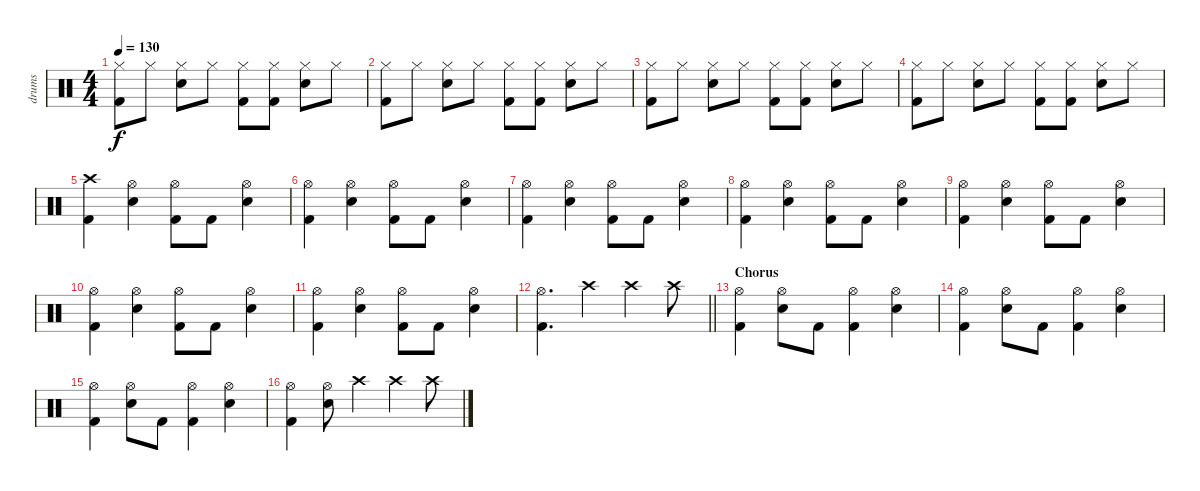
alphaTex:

\track ("drums" "drums") {instrument percussion}
\staff {score}
\articulation defaults
\ts (4 4)
\tempo 130
\clef neutral
\ks c
("Hi-Hat (closed)" "Kick (hit) 2").8{dy f} "Hi-Hat (closed)".8 ("Hi-Hat (closed)" "Snare (hit) 2").8 "Hi-Hat (closed)".8 ("Hi-Hat (closed)" "Kick (hit) 2").8 ("Hi-Hat (closed)" "Kick (hit) 2").8 ("Hi-Hat (closed)" "Snare (hit) 2").8 "Hi-Hat (closed)".8 |
("Hi-Hat (closed)" "Kick (hit) 2").8 "Hi-Hat (closed)".8 ("Hi-Hat (closed)" "Snare (hit) 2").8 "Hi-Hat (closed)".8 ("Hi-Hat (closed)" "Kick (hit) 2").8 ("Hi-Hat (closed)" "Kick (hit) 2").8 ("Hi-Hat (closed)" "Snare (hit) 2").8 "Hi-Hat (closed)".8 |
("Hi-Hat (closed)" "Kick (hit) 2").8 "Hi-Hat (closed)".8 ("Hi-Hat (closed)" "Snare (hit) 2").8 "Hi-Hat (closed)".8 ("Hi-Hat (closed)" "Kick (hit) 2").8 ("Hi-Hat (closed)" "Kick (hit) 2").8 ("Hi-Hat (closed)" "Snare (hit) 2").8 "Hi-Hat (closed)".8 |
("Hi-Hat (closed)" "Kick (hit) 2").8 "Hi-Hat (closed)".8 ("Hi-Hat (closed)" "Snare (hit) 2").8 "Hi-Hat (closed)".8 ("Hi-Hat (closed)" "Kick (hit) 2").8 ("Hi-Hat (closed)" "Kick (hit) 2").8 ("Hi-Hat (closed)" "Snare (hit) 2").8 "Hi-Hat (closed)".8 |
("Crash high (hit)" "Kick (hit) 2").4 ("Hi-Hat (open)" "Snare (hit) 2").4 ("Hi-Hat (open)" "Kick (hit) 2").8 "Kick (hit) 2".8 ("Hi-Hat (open)" "Snare (hit) 2").4 |
("Hi-Hat (open)" "Kick (hit) 2").4 ("Hi-Hat (open)" "Snare (hit) 2").4 ("Hi-Hat (open)" "Kick (hit) 2").8 "Kick (hit) 2".8 ("Hi-Hat (open)" "Snare (hit) 2").4 |
("Hi-Hat (open)" "Kick (hit) 2").4 ("Hi-Hat (open)" "Snare (hit) 2").4 ("Hi-Hat (open)" "Kick (hit) 2").8 "Kick (hit) 2".8 ("Hi-Hat (open)" "Snare (hit) 2").4 |
("Hi-Hat (open)" "Kick (hit) 2").4 ("Hi-Hat (open)" "Snare (hit) 2").4 ("Hi-Hat (open)" "Kick (hit) 2").8 "Kick (hit) 2".8 ("Hi-Hat (open)" "Snare (hit) 2").4 |
("Hi-Hat (open)" "Kick (hit) 2").4 ("Hi-Hat (open)" "Snare (hit) 2").4 ("Hi-Hat (open)" "Kick (hit) 2").8 "Kick (hit) 2".8 ("Hi-Hat (open)" "Snare (hit) 2").4 |
("Hi-Hat (open)" "Kick (hit) 2").4 ("Hi-Hat (open)" "Snare (hit) 2").4 ("Hi-Hat (open)" "Kick (hit) 2").8 "Kick (hit) 2".8 ("Hi-Hat (open)" "Snare (hit) 2").4 |
("Hi-Hat (open)" "Kick (hit) 2").4 ("Hi-Hat (open)" "Snare (hit) 2").4 ("Hi-Hat (open)" "Kick (hit) 2").8 "Kick (hit) 2".8 ("Hi-Hat (open)" "Snare (hit) 2").4 |
\barLineRight lightlight
("Hi-Hat (open)" "Kick (hit) 2").4{d} "Crash high (hit)".4 "Crash high (hit)".4 "Crash high (hit)".8 |
\section ("" "Chorus")
("Hi-Hat (open)" "Kick (hit) 2").4 ("Hi-Hat (open)" "Snare (hit) 2").8 "Kick (hit) 2".8 ("Hi-Hat (open)" "Kick (hit) 2").4 ("Hi-Hat (open)" "Snare (hit) 2").4 |
("Hi-Hat (open)" "Kick (hit) 2").4 ("Hi-Hat (open)" "Snare (hit) 2").8 "Kick (hit) 2".8 ("Hi-Hat (open)" "Kick (hit) 2").4 ("Hi-Hat (open)" "Snare (hit) 2").4 |
("Hi-Hat (open)" "Kick (hit) 2").4 ("Hi-Hat (open)" "Snare (hit) 2").8 "Kick (hit) 2".8 ("Hi-Hat (open)" "Kick (hit) 2").4 ("Hi-Hat (open)" "Snare (hit) 2").4 |
("Hi-Hat (open)" "Kick (hit) 2").4 ("Hi-Hat (open)" "Snare (hit) 2").8 "Crash high (hit)".4 "Crash high (hit)".4 "Crash high (hit)".8
